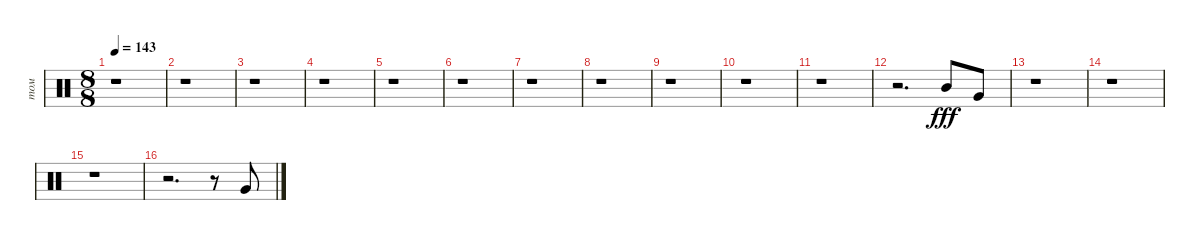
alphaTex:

\track ("том" "том") {instrument percussion}
\staff {score}
\articulation defaults
\ts (8 8)
\tempo 143
\clef neutral
\ks c
r.1{dy fff} |
r.1 |
r.1 |
r.1 |
r.1 |
r.1 |
r.1 |
r.1 |
r.1 |
r.1 |
r.1 |
r.2{d} "Mid Tom (hit)".8 "Very Low Tom (hit)".8 |
r.1 |
r.1 |
r.1 |
r.2{d} r.8 "Very Low Tom (hit)".8
